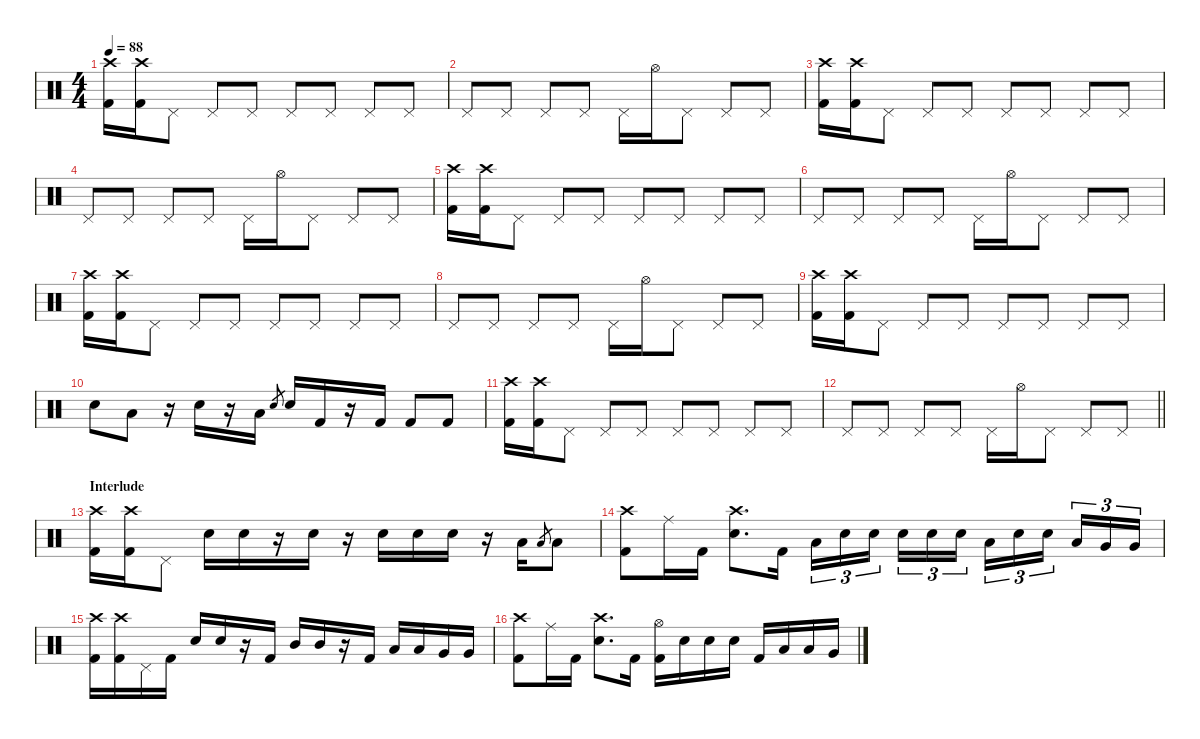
\defaultSystemsLayout 4
\hideDynamics
\bracketExtendMode nobrackets
\singleTrackTrackNamePolicy hidden
\multiTrackTrackNamePolicy hidden
\firstSystemTrackNameMode fullname
\firstSystemTrackNameOrientation horizontal
\otherSystemsTrackNameOrientation horizontal
\track ("Drums" "drm.") {instrument percussion}
\staff {score}
\articulation defaults
\ts (4 4)
\tempo 88
\clef neutral
\ks c
("Crash high (hit)" "Kick (hit) 2").16{dy f beam Down} ("Crash high (hit)" "Kick (hit) 2").16{beam Down} "Pedal Hi-Hat (hit)".8{beam Down} "Pedal Hi-Hat (hit)".8{beam Up} "Pedal Hi-Hat (hit)".8{beam Up} "Pedal Hi-Hat (hit)".8{beam Up} "Pedal Hi-Hat (hit)".8{beam Up} "Pedal Hi-Hat (hit)".8{beam Up} "Pedal Hi-Hat (hit)".8{beam Up} |
"Pedal Hi-Hat (hit)".8{beam Up} "Pedal Hi-Hat (hit)".8{beam Up} "Pedal Hi-Hat (hit)".8{beam Up} "Pedal Hi-Hat (hit)".8{beam Up} "Pedal Hi-Hat (hit)".16{beam Down} "Hi-Hat (open)".16{beam Down} "Pedal Hi-Hat (hit)".8{beam Down} "Pedal Hi-Hat (hit)".8{beam Up} "Pedal Hi-Hat (hit)".8{beam Up} |
("Crash high (hit)" "Kick (hit) 2").16{beam Down} ("Crash high (hit)" "Kick (hit) 2").16{beam Down} "Pedal Hi-Hat (hit)".8{beam Down} "Pedal Hi-Hat (hit)".8{beam Up} "Pedal Hi-Hat (hit)".8{beam Up} "Pedal Hi-Hat (hit)".8{beam Up} "Pedal Hi-Hat (hit)".8{beam Up} "Pedal Hi-Hat (hit)".8{beam Up} "Pedal Hi-Hat (hit)".8{beam Up} |
"Pedal Hi-Hat (hit)".8{beam Up} "Pedal Hi-Hat (hit)".8{beam Up} "Pedal Hi-Hat (hit)".8{beam Up} "Pedal Hi-Hat (hit)".8{beam Up} "Pedal Hi-Hat (hit)".16{beam Down} "Hi-Hat (open)".16{beam Down} "Pedal Hi-Hat (hit)".8{beam Down} "Pedal Hi-Hat (hit)".8{beam Up} "Pedal Hi-Hat (hit)".8{beam Up} |
("Crash high (hit)" "Kick (hit) 2").16{beam Down} ("Crash high (hit)" "Kick (hit) 2").16{beam Down} "Pedal Hi-Hat (hit)".8{beam Down} "Pedal Hi-Hat (hit)".8{beam Up} "Pedal Hi-Hat (hit)".8{beam Up} "Pedal Hi-Hat (hit)".8{beam Up} "Pedal Hi-Hat (hit)".8{beam Up} "Pedal Hi-Hat (hit)".8{beam Up} "Pedal Hi-Hat (hit)".8{beam Up} |
"Pedal Hi-Hat (hit)".8{beam Up} "Pedal Hi-Hat (hit)".8{beam Up} "Pedal Hi-Hat (hit)".8{beam Up} "Pedal Hi-Hat (hit)".8{beam Up} "Pedal Hi-Hat (hit)".16{beam Down} "Hi-Hat (open)".16{beam Down} "Pedal Hi-Hat (hit)".8{beam Down} "Pedal Hi-Hat (hit)".8{beam Up} "Pedal Hi-Hat (hit)".8{beam Up} |
("Crash high (hit)" "Kick (hit) 2").16{beam Down} ("Crash high (hit)" "Kick (hit) 2").16{beam Down} "Pedal Hi-Hat (hit)".8{beam Down} "Pedal Hi-Hat (hit)".8{beam Up} "Pedal Hi-Hat (hit)".8{beam Up} "Pedal Hi-Hat (hit)".8{beam Up} "Pedal Hi-Hat (hit)".8{beam Up} "Pedal Hi-Hat (hit)".8{beam Up} "Pedal Hi-Hat (hit)".8{beam Up} |
"Pedal Hi-Hat (hit)".8{beam Up} "Pedal Hi-Hat (hit)".8{beam Up} "Pedal Hi-Hat (hit)".8{beam Up} "Pedal Hi-Hat (hit)".8{beam Up} "Pedal Hi-Hat (hit)".16{beam Down} "Hi-Hat (open)".16{beam Down} "Pedal Hi-Hat (hit)".8{beam Down} "Pedal Hi-Hat (hit)".8{beam Up} "Pedal Hi-Hat (hit)".8{beam Up} |
("Crash high (hit)" "Kick (hit) 2").16{beam Down} ("Crash high (hit)" "Kick (hit) 2").16{beam Down} "Pedal Hi-Hat (hit)".8{beam Down} "Pedal Hi-Hat (hit)".8{beam Up} "Pedal Hi-Hat (hit)".8{beam Up} "Pedal Hi-Hat (hit)".8{beam Up} "Pedal Hi-Hat (hit)".8{beam Up} "Pedal Hi-Hat (hit)".8{beam Up} "Pedal Hi-Hat (hit)".8{beam Up} |
"Snare (hit) 2".8{beam Down} "Low Tom (hit)".8{beam Down} r.16{beam Down} "Snare (hit) 2".16{beam Down} r.16{beam Down} "Low Tom (hit)".16{beam Down} "Snare (hit) 2".8{gr dy mf beam Up} "Snare (hit) 2".16{dy f beam Up} "Kick (hit) 2".16{beam Up} r.16{beam Up} "Kick (hit) 2".16{beam Up} "Kick (hit) 2".8{beam Up} "Kick (hit) 2".8{beam Up} |
("Crash high (hit)" "Kick (hit) 2").16{beam Down} ("Crash high (hit)" "Kick (hit) 2").16{beam Down} "Pedal Hi-Hat (hit)".8{beam Down} "Pedal Hi-Hat (hit)".8{beam Up} "Pedal Hi-Hat (hit)".8{beam Up} "Pedal Hi-Hat (hit)".8{beam Up} "Pedal Hi-Hat (hit)".8{beam Up} "Pedal Hi-Hat (hit)".8{beam Up} "Pedal Hi-Hat (hit)".8{beam Up} |
\barLineRight lightlight "Pedal Hi-Hat (hit)".8{beam Up} "Pedal Hi-Hat (hit)".8{beam Up} "Pedal Hi-Hat (hit)".8{beam Up} "Pedal Hi-Hat (hit)".8{beam Up} "Pedal Hi-Hat (hit)".16{beam Down} "Hi-Hat (open)".16{beam Down} "Pedal Hi-Hat (hit)".8{beam Down} "Pedal Hi-Hat (hit)".8{beam Up} "Pedal Hi-Hat (hit)".8{beam Up}
|
\section ("" "Interlude")
("Crash high (hit)" "Kick (hit) 2").16{beam Down} ("Crash high (hit)" "Kick (hit) 2").16{beam Down} "Pedal Hi-Hat (hit)".8{beam Down} "Snare (hit) 2".16{beam Down} "Snare (hit) 2".16{beam Down} r.16{beam Down} "Snare (hit) 2".16{beam Down} r.16{beam Down} "Snare (hit) 2".16{beam Down} "Snare (hit) 2".16{beam Down} "Snare (hit) 2".16{beam Down} r.16{beam Down} "Low Tom (hit)".16{beam Up} "Low Tom (hit)".8{gr dy mf beam Up} "Low Tom (hit)".8{dy f beam Up} |
("Crash high (hit)" "Kick (hit) 2").8{beam Down} "Ride (middle)".16{beam Down} "Kick (hit) 2".16{beam Down} ("Crash high (hit)" "Snare (hit) 2").8{d beam Down} "Kick (hit) 2".16{beam Down} "Low Tom (hit)".16{tu (3 2) beam Down} "Snare (hit) 2".16{tu (3 2) beam Down} "Snare (hit) 2".16{tu (3 2) beam Down} "Snare (hit) 2".16{tu (3 2) beam Down} "Snare (hit) 2".16{tu (3 2) beam Down} "Snare (hit) 2".16{tu (3 2) beam Down} "Low Tom (hit)".16{tu (3 2) beam Down} "Snare (hit) 2".16{tu (3 2) beam Down} "Snare (hit) 2".16{tu (3 2) beam Down} "Low Tom (hit)".16{tu (3 2) beam Up} "Very Low Tom (hit)".16{tu (3 2) beam Up} "Very Low Tom (hit)".16{tu (3 2) beam Up} |
("Crash high (hit)" "Kick (hit) 2").16{beam Down} ("Crash high (hit)" "Kick (hit) 2").16{beam Down} "Pedal Hi-Hat (hit)".16{beam Down} "Kick (hit) 2".16{beam Down} "Snare (hit) 2".16{beam Up} "Snare (hit) 2".16{beam Up} r.16{beam Up} "Kick (hit) 2".16{beam Up} "Mid Tom (hit)".16{beam Up} "Mid Tom (hit)".16{beam Up} r.16{beam Up} "Kick (hit) 2".16{beam Up} "Low Tom (hit)".16{beam Up} "Low Tom (hit)".16{beam Up} "Very Low Tom (hit)".16{beam Up} "Very Low Tom (hit)".16{beam Up} |
("Crash high (hit)" "Kick (hit) 2").8{beam Down} "Ride (middle)".16{beam Down} "Kick (hit) 2".16{beam Down} ("Crash high (hit)" "Snare (hit) 2").8{d beam Down} "Kick (hit) 2".16{beam Down} ("Hi-Hat (open)" "Kick (hit) 2").16{beam Down} "Snare (hit) 2".16{beam Down} "Snare (hit) 2".16{beam Down} "Snare (hit) 2".16{beam Down} "Kick (hit) 2".16{beam Up} "Low Tom (hit)".16{beam Up} "Low Tom (hit)".16{beam Up} "Very Low Tom (hit)".16{beam Up}
